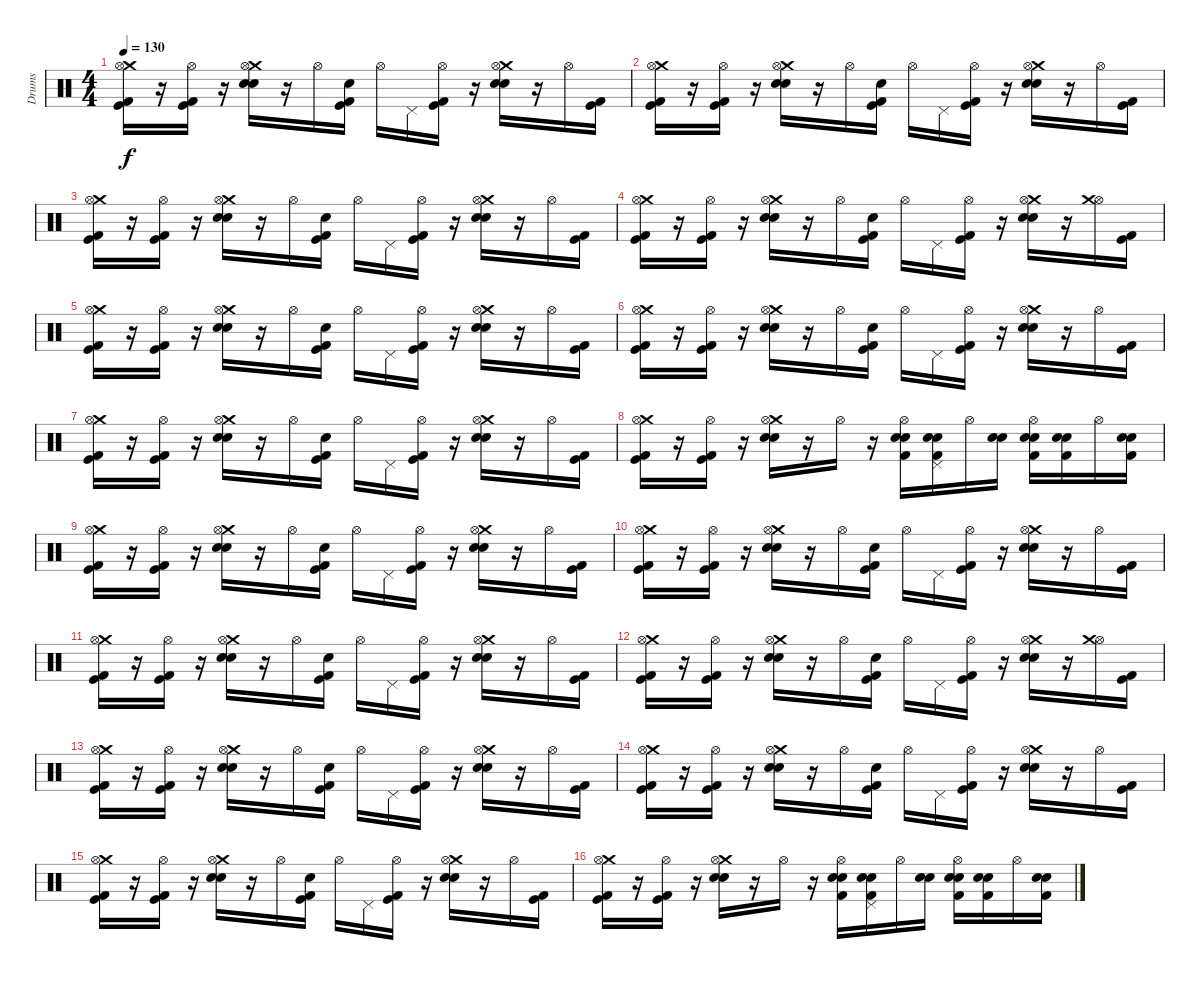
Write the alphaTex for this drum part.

\track ("Drums" "Drums") {instrument percussion}
\staff {score}
\articulation defaults
\ts (4 4)
\tempo 130
\clef neutral
\ks c
("Kick (hit) 2" "Kick (hit)" "Crash medium (hit)" "Hi-Hat (open)").16{dy f} r.16 ("Kick (hit) 2" "Kick (hit)" "Hi-Hat (open)").16 r.16 ("Snare (hit) 2" "Electric Snare (hit)" "Crash medium (hit)" "Hi-Hat (open)").16 r.16 "Hi-Hat (open)".16 ("Kick (hit) 2" "Kick (hit)" "Electric Snare (hit)").16 "Hi-Hat (open)".16 "Pedal Hi-Hat (hit)".16 ("Kick (hit) 2" "Kick (hit)" "Hi-Hat (open)").16 r.16 ("Snare (hit) 2" "Electric Snare (hit)" "Crash medium (hit)" "Hi-Hat (open)").16 r.16 "Hi-Hat (open)".16 ("Kick (hit) 2" "Kick (hit)").16 |
("Kick (hit) 2" "Kick (hit)" "Crash medium (hit)" "Hi-Hat (open)").16 r.16 ("Kick (hit) 2" "Kick (hit)" "Hi-Hat (open)").16 r.16 ("Snare (hit) 2" "Electric Snare (hit)" "Crash medium (hit)" "Hi-Hat (open)").16 r.16 "Hi-Hat (open)".16 ("Kick (hit) 2" "Kick (hit)" "Electric Snare (hit)").16 "Hi-Hat (open)".16 "Pedal Hi-Hat (hit)".16 ("Kick (hit) 2" "Kick (hit)" "Hi-Hat (open)").16 r.16 ("Snare (hit) 2" "Electric Snare (hit)" "Crash medium (hit)" "Hi-Hat (open)").16 r.16 "Hi-Hat (open)".16 ("Kick (hit) 2" "Kick (hit)").16 |
("Kick (hit) 2" "Kick (hit)" "Crash medium (hit)" "Hi-Hat (open)").16 r.16 ("Kick (hit) 2" "Kick (hit)" "Hi-Hat (open)").16 r.16 ("Snare (hit) 2" "Electric Snare (hit)" "Crash medium (hit)" "Hi-Hat (open)").16 r.16 "Hi-Hat (open)".16 ("Kick (hit) 2" "Kick (hit)" "Electric Snare (hit)").16 "Hi-Hat (open)".16 "Pedal Hi-Hat (hit)".16 ("Kick (hit) 2" "Kick (hit)" "Hi-Hat (open)").16 r.16 ("Snare (hit) 2" "Electric Snare (hit)" "Crash medium (hit)" "Hi-Hat (open)").16 r.16 "Hi-Hat (open)".16 ("Kick (hit) 2" "Kick (hit)").16 |
("Kick (hit) 2" "Kick (hit)" "Crash medium (hit)" "Hi-Hat (open)").16 r.16 ("Kick (hit) 2" "Kick (hit)" "Hi-Hat (open)").16 r.16 ("Snare (hit) 2" "Electric Snare (hit)" "Crash medium (hit)" "Hi-Hat (open)").16 r.16 "Hi-Hat (open)".16 ("Kick (hit) 2" "Kick (hit)" "Electric Snare (hit)").16 "Hi-Hat (open)".16 "Pedal Hi-Hat (hit)".16 ("Kick (hit) 2" "Kick (hit)" "Hi-Hat (open)").16 r.16 ("Snare (hit) 2" "Electric Snare (hit)" "Crash medium (hit)" "Hi-Hat (open)").16 r.16 ("Hi-Hat (open)" "Crash medium (hit)").16 ("Kick (hit) 2" "Kick (hit)").16 |
("Kick (hit) 2" "Kick (hit)" "Crash medium (hit)" "Hi-Hat (open)").16 r.16 ("Kick (hit) 2" "Kick (hit)" "Hi-Hat (open)").16 r.16 ("Snare (hit) 2" "Electric Snare (hit)" "Crash medium (hit)" "Hi-Hat (open)").16 r.16 "Hi-Hat (open)".16 ("Kick (hit) 2" "Kick (hit)" "Electric Snare (hit)").16 "Hi-Hat (open)".16 "Pedal Hi-Hat (hit)".16 ("Kick (hit) 2" "Kick (hit)" "Hi-Hat (open)").16 r.16 ("Snare (hit) 2" "Electric Snare (hit)" "Crash medium (hit)" "Hi-Hat (open)").16 r.16 "Hi-Hat (open)".16 ("Kick (hit) 2" "Kick (hit)").16 |
("Kick (hit) 2" "Kick (hit)" "Crash medium (hit)" "Hi-Hat (open)").16 r.16 ("Kick (hit) 2" "Kick (hit)" "Hi-Hat (open)").16 r.16 ("Snare (hit) 2" "Electric Snare (hit)" "Crash medium (hit)" "Hi-Hat (open)").16 r.16 "Hi-Hat (open)".16 ("Kick (hit) 2" "Kick (hit)" "Electric Snare (hit)").16 "Hi-Hat (open)".16 "Pedal Hi-Hat (hit)".16 ("Kick (hit) 2" "Kick (hit)" "Hi-Hat (open)").16 r.16 ("Snare (hit) 2" "Electric Snare (hit)" "Crash medium (hit)" "Hi-Hat (open)").16 r.16 "Hi-Hat (open)".16 ("Kick (hit) 2" "Kick (hit)").16 |
("Kick (hit) 2" "Kick (hit)" "Crash medium (hit)" "Hi-Hat (open)").16 r.16 ("Kick (hit) 2" "Kick (hit)" "Hi-Hat (open)").16 r.16 ("Snare (hit) 2" "Electric Snare (hit)" "Crash medium (hit)" "Hi-Hat (open)").16 r.16 "Hi-Hat (open)".16 ("Kick (hit) 2" "Kick (hit)" "Electric Snare (hit)").16 "Hi-Hat (open)".16 "Pedal Hi-Hat (hit)".16 ("Kick (hit) 2" "Kick (hit)" "Hi-Hat (open)").16 r.16 ("Snare (hit) 2" "Electric Snare (hit)" "Crash medium (hit)" "Hi-Hat (open)").16 r.16 "Hi-Hat (open)".16 ("Kick (hit) 2" "Kick (hit)").16 |
("Kick (hit) 2" "Kick (hit)" "Crash medium (hit)" "Hi-Hat (open)").16 r.16 ("Kick (hit) 2" "Kick (hit)" "Hi-Hat (open)").16 r.16 ("Snare (hit) 2" "Electric Snare (hit)" "Crash medium (hit)" "Hi-Hat (open)").16 r.16 "Hi-Hat (open)".16 r.16 ("Hi-Hat (open)" "Electric Snare (hit)" "Snare (hit) 2" "Kick (hit) 2").16 ("Electric Snare (hit)" "Snare (hit) 2" "Kick (hit) 2" "Pedal Hi-Hat (hit)").16 "Hi-Hat (open)".16 ("Electric Snare (hit)" "Electric Snare (hit)").16 ("Hi-Hat (open)" "Snare (hit) 2" "Electric Snare (hit)" "Kick (hit) 2").16 ("Electric Snare (hit)" "Snare (hit) 2" "Kick (hit) 2").16 "Hi-Hat (open)".16 ("Electric Snare (hit)" "Snare (hit) 2" "Kick (hit) 2").16 |
("Kick (hit) 2" "Kick (hit)" "Crash medium (hit)" "Hi-Hat (open)").16 r.16 ("Kick (hit) 2" "Kick (hit)" "Hi-Hat (open)").16 r.16 ("Snare (hit) 2" "Electric Snare (hit)" "Crash medium (hit)" "Hi-Hat (open)").16 r.16 "Hi-Hat (open)".16 ("Kick (hit) 2" "Kick (hit)" "Electric Snare (hit)").16 "Hi-Hat (open)".16 "Pedal Hi-Hat (hit)".16 ("Kick (hit) 2" "Kick (hit)" "Hi-Hat (open)").16 r.16 ("Snare (hit) 2" "Electric Snare (hit)" "Crash medium (hit)" "Hi-Hat (open)").16 r.16 "Hi-Hat (open)".16 ("Kick (hit) 2" "Kick (hit)").16 |
("Kick (hit) 2" "Kick (hit)" "Crash medium (hit)" "Hi-Hat (open)").16 r.16 ("Kick (hit) 2" "Kick (hit)" "Hi-Hat (open)").16 r.16 ("Snare (hit) 2" "Electric Snare (hit)" "Crash medium (hit)" "Hi-Hat (open)").16 r.16 "Hi-Hat (open)".16 ("Kick (hit) 2" "Kick (hit)" "Electric Snare (hit)").16 "Hi-Hat (open)".16 "Pedal Hi-Hat (hit)".16 ("Kick (hit) 2" "Kick (hit)" "Hi-Hat (open)").16 r.16 ("Snare (hit) 2" "Electric Snare (hit)" "Crash medium (hit)" "Hi-Hat (open)").16 r.16 "Hi-Hat (open)".16 ("Kick (hit) 2" "Kick (hit)").16 |
("Kick (hit) 2" "Kick (hit)" "Crash medium (hit)" "Hi-Hat (open)").16 r.16 ("Kick (hit) 2" "Kick (hit)" "Hi-Hat (open)").16 r.16 ("Snare (hit) 2" "Electric Snare (hit)" "Crash medium (hit)" "Hi-Hat (open)").16 r.16 "Hi-Hat (open)".16 ("Kick (hit) 2" "Kick (hit)" "Electric Snare (hit)").16 "Hi-Hat (open)".16 "Pedal Hi-Hat (hit)".16 ("Kick (hit) 2" "Kick (hit)" "Hi-Hat (open)").16 r.16 ("Snare (hit) 2" "Electric Snare (hit)" "Crash medium (hit)" "Hi-Hat (open)").16 r.16 "Hi-Hat (open)".16 ("Kick (hit) 2" "Kick (hit)").16 |
("Kick (hit) 2" "Kick (hit)" "Crash medium (hit)" "Hi-Hat (open)").16 r.16 ("Kick (hit) 2" "Kick (hit)" "Hi-Hat (open)").16 r.16 ("Snare (hit) 2" "Electric Snare (hit)" "Crash medium (hit)" "Hi-Hat (open)").16 r.16 "Hi-Hat (open)".16 ("Kick (hit) 2" "Kick (hit)" "Electric Snare (hit)").16 "Hi-Hat (open)".16 "Pedal Hi-Hat (hit)".16 ("Kick (hit) 2" "Kick (hit)" "Hi-Hat (open)").16 r.16 ("Snare (hit) 2" "Electric Snare (hit)" "Crash medium (hit)" "Hi-Hat (open)").16 r.16 ("Hi-Hat (open)" "Crash medium (hit)").16 ("Kick (hit) 2" "Kick (hit)").16 |
("Kick (hit) 2" "Kick (hit)" "Crash medium (hit)" "Hi-Hat (open)").16 r.16 ("Kick (hit) 2" "Kick (hit)" "Hi-Hat (open)").16 r.16 ("Snare (hit) 2" "Electric Snare (hit)" "Crash medium (hit)" "Hi-Hat (open)").16 r.16 "Hi-Hat (open)".16 ("Kick (hit) 2" "Kick (hit)" "Electric Snare (hit)").16 "Hi-Hat (open)".16 "Pedal Hi-Hat (hit)".16 ("Kick (hit) 2" "Kick (hit)" "Hi-Hat (open)").16 r.16 ("Snare (hit) 2" "Electric Snare (hit)" "Crash medium (hit)" "Hi-Hat (open)").16 r.16 "Hi-Hat (open)".16 ("Kick (hit) 2" "Kick (hit)").16 |
("Kick (hit) 2" "Kick (hit)" "Crash medium (hit)" "Hi-Hat (open)").16 r.16 ("Kick (hit) 2" "Kick (hit)" "Hi-Hat (open)").16 r.16 ("Snare (hit) 2" "Electric Snare (hit)" "Crash medium (hit)" "Hi-Hat (open)").16 r.16 "Hi-Hat (open)".16 ("Kick (hit) 2" "Kick (hit)" "Electric Snare (hit)").16 "Hi-Hat (open)".16 "Pedal Hi-Hat (hit)".16 ("Kick (hit) 2" "Kick (hit)" "Hi-Hat (open)").16 r.16 ("Snare (hit) 2" "Electric Snare (hit)" "Crash medium (hit)" "Hi-Hat (open)").16 r.16 "Hi-Hat (open)".16 ("Kick (hit) 2" "Kick (hit)").16 |
("Kick (hit) 2" "Kick (hit)" "Crash medium (hit)" "Hi-Hat (open)").16 r.16 ("Kick (hit) 2" "Kick (hit)" "Hi-Hat (open)").16 r.16 ("Snare (hit) 2" "Electric Snare (hit)" "Crash medium (hit)" "Hi-Hat (open)").16 r.16 "Hi-Hat (open)".16 ("Kick (hit) 2" "Kick (hit)" "Electric Snare (hit)").16 "Hi-Hat (open)".16 "Pedal Hi-Hat (hit)".16 ("Kick (hit) 2" "Kick (hit)" "Hi-Hat (open)").16 r.16 ("Snare (hit) 2" "Electric Snare (hit)" "Crash medium (hit)" "Hi-Hat (open)").16 r.16 "Hi-Hat (open)".16 ("Kick (hit) 2" "Kick (hit)").16 |
("Kick (hit) 2" "Kick (hit)" "Crash medium (hit)" "Hi-Hat (open)").16 r.16 ("Kick (hit) 2" "Kick (hit)" "Hi-Hat (open)").16 r.16 ("Snare (hit) 2" "Electric Snare (hit)" "Crash medium (hit)" "Hi-Hat (open)").16 r.16 "Hi-Hat (open)".16 r.16 ("Hi-Hat (open)" "Electric Snare (hit)" "Snare (hit) 2" "Kick (hit) 2").16 ("Electric Snare (hit)" "Snare (hit) 2" "Kick (hit) 2" "Pedal Hi-Hat (hit)").16 "Hi-Hat (open)".16 ("Electric Snare (hit)" "Electric Snare (hit)").16 ("Hi-Hat (open)" "Snare (hit) 2" "Electric Snare (hit)" "Kick (hit) 2").16 ("Electric Snare (hit)" "Snare (hit) 2" "Kick (hit) 2").16 "Hi-Hat (open)".16 ("Electric Snare (hit)" "Snare (hit) 2" "Kick (hit) 2").16
